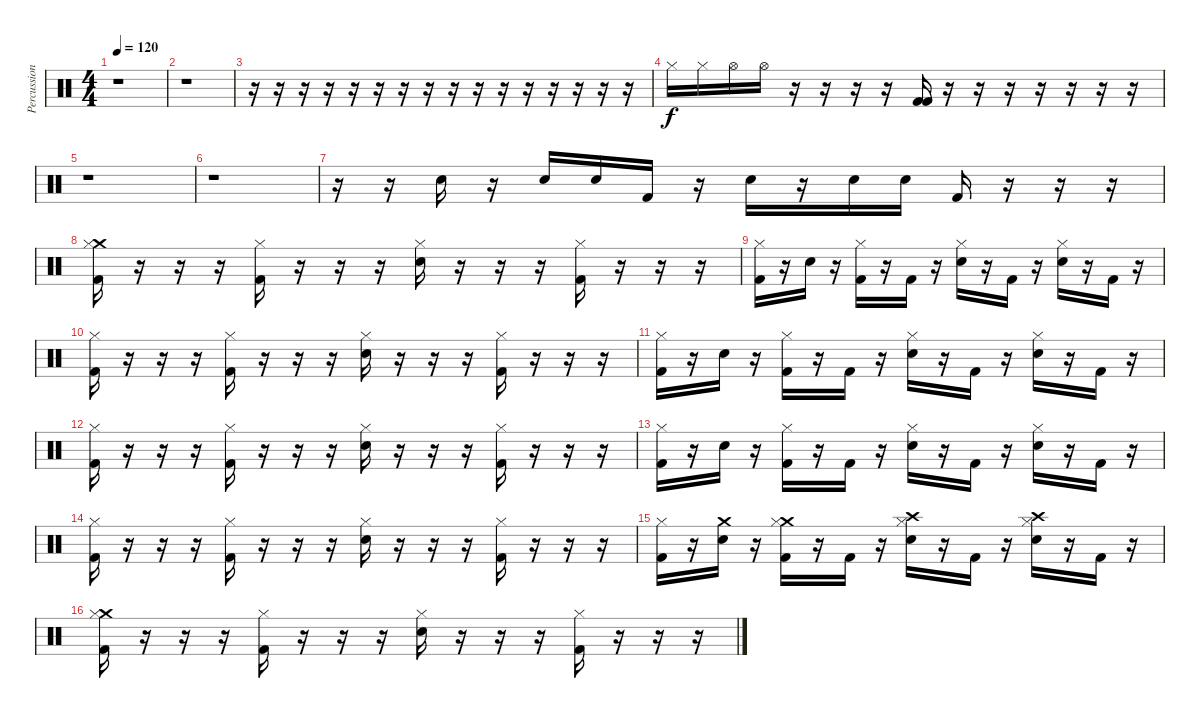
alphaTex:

\track ("Percussion" "Percussion") {instrument percussion}
\staff {score}
\articulation defaults
\ts (4 4)
\tempo 120
\clef neutral
\ks c
r.1{dy f} |
r.1 |
r.16 r.16 r.16 r.16 r.16 r.16 r.16 r.16 r.16 r.16 r.16 r.16 r.16 r.16 r.16 r.16 |
"Hi-Hat (closed)".16 "Hi-Hat (closed)".16 "Hi-Hat (open)".16 "Hi-Hat (open)".16 r.16 r.16 r.16 r.16 ("Kick (hit) 2" "Kick (hit) 2").16 r.16 r.16 r.16 r.16 r.16 r.16 r.16 |
r.1 |
r.1 |
r.16 r.16 "Snare (hit) 2".16 r.16 "Snare (hit) 2".16 "Snare (hit) 2".16 "Kick (hit) 2".16 r.16 "Snare (hit) 2".16 r.16 "Snare (hit) 2".16 "Snare (hit) 2".16 "Kick (hit) 2".16 r.16 r.16 r.16 |
("Crash medium (hit)" "Hi-Hat (closed)" "Kick (hit) 2").16 r.16 r.16 r.16 ("Hi-Hat (closed)" "Kick (hit) 2").16 r.16 r.16 r.16 ("Hi-Hat (closed)" "Snare (hit) 2").16 r.16 r.16 r.16 ("Hi-Hat (closed)" "Kick (hit) 2").16 r.16 r.16 r.16 |
("Hi-Hat (closed)" "Kick (hit) 2").16 r.16 "Snare (hit) 2".16 r.16 ("Hi-Hat (closed)" "Kick (hit) 2").16 r.16 "Kick (hit) 2".16 r.16 ("Hi-Hat (closed)" "Snare (hit) 2").16 r.16 "Kick (hit) 2".16 r.16 ("Hi-Hat (closed)" "Snare (hit) 2").16 r.16 "Kick (hit) 2".16 r.16 |
("Hi-Hat (closed)" "Kick (hit) 2").16 r.16 r.16 r.16 ("Hi-Hat (closed)" "Kick (hit) 2").16 r.16 r.16 r.16 ("Hi-Hat (closed)" "Snare (hit) 2").16 r.16 r.16 r.16 ("Hi-Hat (closed)" "Kick (hit) 2").16 r.16 r.16 r.16 |
("Hi-Hat (closed)" "Kick (hit) 2").16 r.16 "Snare (hit) 2".16 r.16 ("Hi-Hat (closed)" "Kick (hit) 2").16 r.16 "Kick (hit) 2".16 r.16 ("Hi-Hat (closed)" "Snare (hit) 2").16 r.16 "Kick (hit) 2".16 r.16 ("Hi-Hat (closed)" "Snare (hit) 2").16 r.16 "Kick (hit) 2".16 r.16 |
("Hi-Hat (closed)" "Kick (hit) 2").16 r.16 r.16 r.16 ("Hi-Hat (closed)" "Kick (hit) 2").16 r.16 r.16 r.16 ("Hi-Hat (closed)" "Snare (hit) 2").16 r.16 r.16 r.16 ("Hi-Hat (closed)" "Kick (hit) 2").16 r.16 r.16 r.16 |
("Hi-Hat (closed)" "Kick (hit) 2").16 r.16 "Snare (hit) 2".16 r.16 ("Hi-Hat (closed)" "Kick (hit) 2").16 r.16 "Kick (hit) 2".16 r.16 ("Hi-Hat (closed)" "Snare (hit) 2").16 r.16 "Kick (hit) 2".16 r.16 ("Hi-Hat (closed)" "Snare (hit) 2").16 r.16 "Kick (hit) 2".16 r.16 |
("Hi-Hat (closed)" "Kick (hit) 2").16 r.16 r.16 r.16 ("Hi-Hat (closed)" "Kick (hit) 2").16 r.16 r.16 r.16 ("Hi-Hat (closed)" "Snare (hit) 2").16 r.16 r.16 r.16 ("Hi-Hat (closed)" "Kick (hit) 2").16 r.16 r.16 r.16 |
("Hi-Hat (closed)" "Kick (hit) 2").16 r.16 ("Crash medium (hit)" "Snare (hit) 2").16 r.16 ("Crash medium (hit)" "Hi-Hat (closed)" "Kick (hit) 2").16 r.16 "Kick (hit) 2".16 r.16 ("Crash high (hit)" "Hi-Hat (closed)" "Snare (hit) 2").16 r.16 "Kick (hit) 2".16 r.16 ("Crash high (hit)" "Hi-Hat (closed)" "Snare (hit) 2").16 r.16 "Kick (hit) 2".16 r.16 |
("Crash medium (hit)" "Hi-Hat (closed)" "Kick (hit) 2").16 r.16 r.16 r.16 ("Hi-Hat (closed)" "Kick (hit) 2").16 r.16 r.16 r.16 ("Hi-Hat (closed)" "Snare (hit) 2").16 r.16 r.16 r.16 ("Hi-Hat (closed)" "Kick (hit) 2").16 r.16 r.16 r.16
